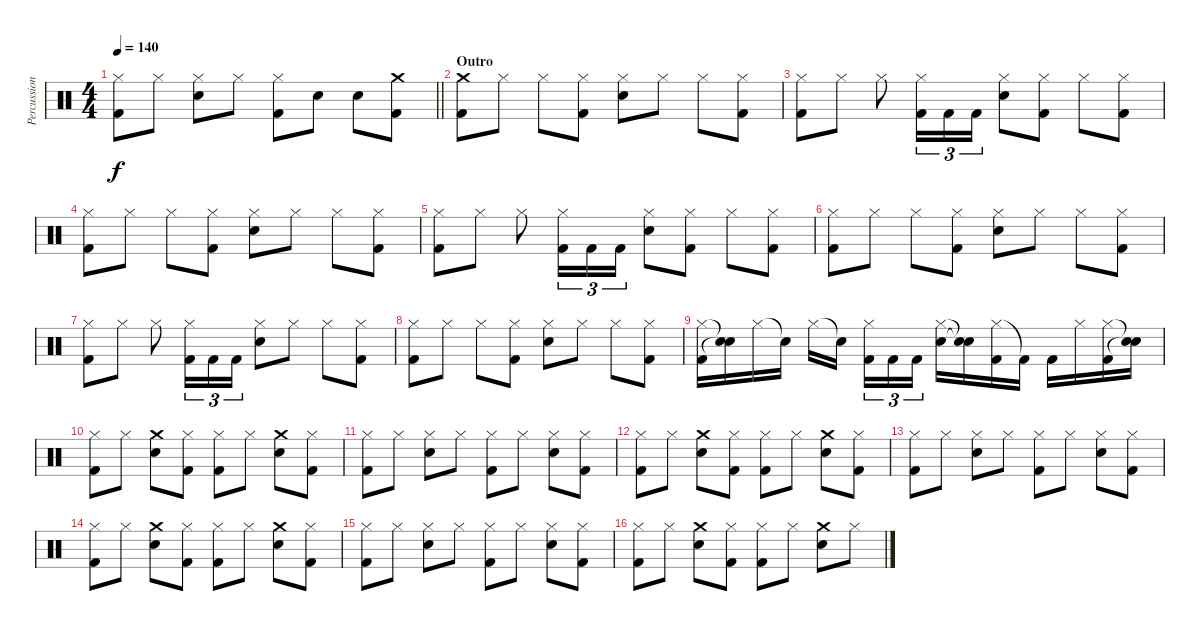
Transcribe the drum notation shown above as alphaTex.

\track ("Percussion" "Percussion") {instrument percussion}
\staff {score}
\articulation defaults
\ts (4 4)
\tempo 140
\clef neutral
\barLineRight lightlight
\ks c
("Hi-Hat (closed)" "Kick (hit) 2").8{dy f} "Hi-Hat (closed)".8 ("Hi-Hat (closed)" "Snare (hit) 2").8 "Hi-Hat (closed)".8 ("Hi-Hat (closed)" "Kick (hit) 2").8 "Snare (hit) 2".8 "Snare (hit) 2".8 ("Crash medium (hit)" "Kick (hit) 2").8 |
\section ("" "Outro")
("Crash medium (hit)" "Kick (hit) 2").8 "Hi-Hat (closed)".8 "Hi-Hat (closed)".8 ("Hi-Hat (closed)" "Kick (hit) 2").8 ("Hi-Hat (closed)" "Snare (hit) 2").8 "Hi-Hat (closed)".8 "Hi-Hat (closed)".8 ("Hi-Hat (closed)" "Kick (hit) 2").8 |
("Hi-Hat (closed)" "Kick (hit) 2").8 "Hi-Hat (closed)".8 "Hi-Hat (closed)".8 ("Hi-Hat (closed)" "Kick (hit) 2").16{tu (3 2)} "Kick (hit) 2".16{tu (3 2)} "Kick (hit) 2".16{tu (3 2)} ("Hi-Hat (closed)" "Snare (hit) 2").8 ("Hi-Hat (closed)" "Kick (hit) 2").8 "Hi-Hat (closed)".8 ("Hi-Hat (closed)" "Kick (hit) 2").8 |
("Hi-Hat (closed)" "Kick (hit) 2").8 "Hi-Hat (closed)".8 "Hi-Hat (closed)".8 ("Hi-Hat (closed)" "Kick (hit) 2").8 ("Hi-Hat (closed)" "Snare (hit) 2").8 "Hi-Hat (closed)".8 "Hi-Hat (closed)".8 ("Hi-Hat (closed)" "Kick (hit) 2").8 |
("Hi-Hat (closed)" "Kick (hit) 2").8 "Hi-Hat (closed)".8 "Hi-Hat (closed)".8 ("Hi-Hat (closed)" "Kick (hit) 2").16{tu (3 2)} "Kick (hit) 2".16{tu (3 2)} "Kick (hit) 2".16{tu (3 2)} ("Hi-Hat (closed)" "Snare (hit) 2").8 ("Hi-Hat (closed)" "Kick (hit) 2").8 "Hi-Hat (closed)".8 ("Hi-Hat (closed)" "Kick (hit) 2").8 |
("Hi-Hat (closed)" "Kick (hit) 2").8 "Hi-Hat (closed)".8 "Hi-Hat (closed)".8 ("Hi-Hat (closed)" "Kick (hit) 2").8 ("Hi-Hat (closed)" "Snare (hit) 2").8 "Hi-Hat (closed)".8 "Hi-Hat (closed)".8 ("Hi-Hat (closed)" "Kick (hit) 2").8 |
("Hi-Hat (closed)" "Kick (hit) 2").8 "Hi-Hat (closed)".8 "Hi-Hat (closed)".8 ("Hi-Hat (closed)" "Kick (hit) 2").16{tu (3 2)} "Kick (hit) 2".16{tu (3 2)} "Kick (hit) 2".16{tu (3 2)} ("Hi-Hat (closed)" "Snare (hit) 2").8 "Hi-Hat (closed)".8 "Hi-Hat (closed)".8 ("Hi-Hat (closed)" "Kick (hit) 2").8 |
("Hi-Hat (closed)" "Kick (hit) 2").8 "Hi-Hat (closed)".8 "Hi-Hat (closed)".8 ("Hi-Hat (closed)" "Kick (hit) 2").8 ("Hi-Hat (closed)" "Snare (hit) 2").8 "Hi-Hat (closed)".8 "Hi-Hat (closed)".8 ("Hi-Hat (closed)" "Kick (hit) 2").8 |
("Hi-Hat (closed)" "Kick (hit) 2").16 ("Snare (hit)"{t} "Snare (hit)"{t}).16 "Hi-Hat (closed)".16 "Snare (hit)"{t}.16 "Hi-Hat (closed)".16 "Snare (hit)"{t}.16{beam splitsecondary} ("Hi-Hat (closed)" "Kick (hit) 2").16{tu (3 2)} "Kick (hit) 2".16{tu (3 2)} "Kick (hit) 2".16{tu (3 2)} ("Hi-Hat (closed)" "Snare (hit) 2").16 ("Snare (hit)"{t} "Snare (hit)"{t}).16 ("Hi-Hat (closed)" "Kick (hit) 2").16 "Kick (hit) 2"{t}.16 "Kick (hit) 2".16 "Hi-Hat (closed)".16 ("Hi-Hat (closed)" "Kick (hit) 2").16 ("Snare (hit)"{t} "Snare (hit)"{t}).16 |
("Hi-Hat (closed)" "Kick (hit) 2").8 "Hi-Hat (closed)".8 ("Crash medium (hit)" "Snare (hit) 2").8 ("Hi-Hat (closed)" "Kick (hit) 2").8 ("Hi-Hat (closed)" "Kick (hit) 2").8 "Hi-Hat (closed)".8 ("Crash medium (hit)" "Snare (hit) 2").8 ("Hi-Hat (closed)" "Kick (hit) 2").8 |
("Hi-Hat (closed)" "Kick (hit) 2").8 "Hi-Hat (closed)".8 ("Hi-Hat (closed)" "Snare (hit) 2").8 "Hi-Hat (closed)".8 ("Hi-Hat (closed)" "Kick (hit) 2").8 "Hi-Hat (closed)".8 ("Hi-Hat (closed)" "Snare (hit) 2").8 ("Hi-Hat (closed)" "Kick (hit) 2").8 |
("Hi-Hat (closed)" "Kick (hit) 2").8 "Hi-Hat (closed)".8 ("Crash medium (hit)" "Snare (hit) 2").8 ("Hi-Hat (closed)" "Kick (hit) 2").8 ("Hi-Hat (closed)" "Kick (hit) 2").8 "Hi-Hat (closed)".8 ("Crash medium (hit)" "Snare (hit) 2").8 ("Hi-Hat (closed)" "Kick (hit) 2").8 |
("Hi-Hat (closed)" "Kick (hit) 2").8 "Hi-Hat (closed)".8 ("Hi-Hat (closed)" "Snare (hit) 2").8 "Hi-Hat (closed)".8 ("Hi-Hat (closed)" "Kick (hit) 2").8 "Hi-Hat (closed)".8 ("Hi-Hat (closed)" "Snare (hit) 2").8 ("Hi-Hat (closed)" "Kick (hit) 2").8 |
("Hi-Hat (closed)" "Kick (hit) 2").8 "Hi-Hat (closed)".8 ("Crash medium (hit)" "Snare (hit) 2").8 ("Hi-Hat (closed)" "Kick (hit) 2").8 ("Hi-Hat (closed)" "Kick (hit) 2").8 "Hi-Hat (closed)".8 ("Crash medium (hit)" "Snare (hit) 2").8 ("Hi-Hat (closed)" "Kick (hit) 2").8 |
("Hi-Hat (closed)" "Kick (hit) 2").8 "Hi-Hat (closed)".8 ("Hi-Hat (closed)" "Snare (hit) 2").8 "Hi-Hat (closed)".8 ("Hi-Hat (closed)" "Kick (hit) 2").8 "Hi-Hat (closed)".8 ("Hi-Hat (closed)" "Snare (hit) 2").8 ("Hi-Hat (closed)" "Kick (hit) 2").8 |
("Hi-Hat (closed)" "Kick (hit) 2").8 "Hi-Hat (closed)".8 ("Crash medium (hit)" "Snare (hit) 2").8 ("Hi-Hat (closed)" "Kick (hit) 2").8 ("Hi-Hat (closed)" "Kick (hit) 2").8 "Hi-Hat (closed)".8 ("Crash medium (hit)" "Snare (hit) 2").8 "Hi-Hat (closed)".8
